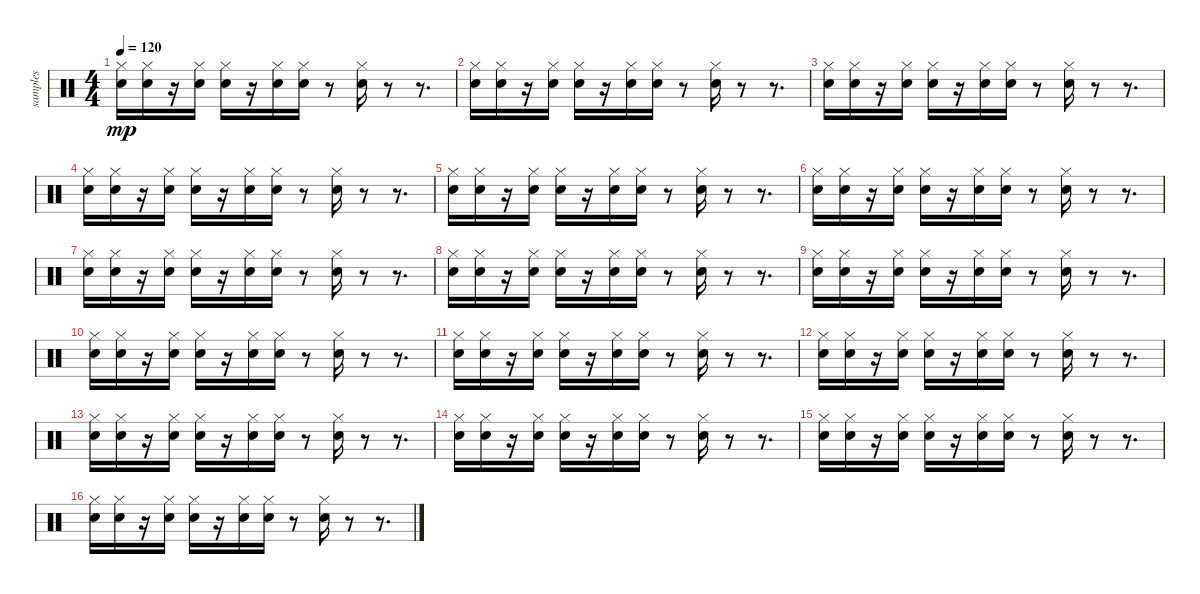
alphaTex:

\track ("samples" "samples") {instrument percussion}
\staff {score}
\articulation defaults
\ts (4 4)
\tempo 120
\clef neutral
\ks c
("Hi-Hat (closed)" "Snare (hit) 2").16{dy mp} ("Hi-Hat (closed)" "Snare (hit) 2").16 r.16 ("Hi-Hat (closed)" "Snare (hit) 2").16 ("Hi-Hat (closed)" "Snare (hit) 2").16 r.16 ("Hi-Hat (closed)" "Snare (hit) 2").16 ("Hi-Hat (closed)" "Snare (hit) 2").16 r.8 ("Hi-Hat (closed)" "Snare (hit) 2").16 r.8 r.8{d} |
("Hi-Hat (closed)" "Snare (hit) 2").16 ("Hi-Hat (closed)" "Snare (hit) 2").16 r.16 ("Hi-Hat (closed)" "Snare (hit) 2").16 ("Hi-Hat (closed)" "Snare (hit) 2").16 r.16 ("Hi-Hat (closed)" "Snare (hit) 2").16 ("Hi-Hat (closed)" "Snare (hit) 2").16 r.8 ("Hi-Hat (closed)" "Snare (hit) 2").16 r.8 r.8{d} |
("Hi-Hat (closed)" "Snare (hit) 2").16 ("Hi-Hat (closed)" "Snare (hit) 2").16 r.16 ("Hi-Hat (closed)" "Snare (hit) 2").16 ("Hi-Hat (closed)" "Snare (hit) 2").16 r.16 ("Hi-Hat (closed)" "Snare (hit) 2").16 ("Hi-Hat (closed)" "Snare (hit) 2").16 r.8 ("Hi-Hat (closed)" "Snare (hit) 2").16 r.8 r.8{d} |
("Hi-Hat (closed)" "Snare (hit) 2").16{volume 10} ("Hi-Hat (closed)" "Snare (hit) 2").16 r.16 ("Hi-Hat (closed)" "Snare (hit) 2").16 ("Hi-Hat (closed)" "Snare (hit) 2").16 r.16 ("Hi-Hat (closed)" "Snare (hit) 2").16 ("Hi-Hat (closed)" "Snare (hit) 2").16 r.8 ("Hi-Hat (closed)" "Snare (hit) 2").16 r.8 r.8{d} |
("Hi-Hat (closed)" "Snare (hit) 2").16 ("Hi-Hat (closed)" "Snare (hit) 2").16 r.16 ("Hi-Hat (closed)" "Snare (hit) 2").16 ("Hi-Hat (closed)" "Snare (hit) 2").16 r.16 ("Hi-Hat (closed)" "Snare (hit) 2").16 ("Hi-Hat (closed)" "Snare (hit) 2").16 r.8 ("Hi-Hat (closed)" "Snare (hit) 2").16 r.8 r.8{d} |
("Hi-Hat (closed)" "Snare (hit) 2").16 ("Hi-Hat (closed)" "Snare (hit) 2").16 r.16 ("Hi-Hat (closed)" "Snare (hit) 2").16 ("Hi-Hat (closed)" "Snare (hit) 2").16 r.16 ("Hi-Hat (closed)" "Snare (hit) 2").16 ("Hi-Hat (closed)" "Snare (hit) 2").16 r.8 ("Hi-Hat (closed)" "Snare (hit) 2").16 r.8 r.8{d} |
("Hi-Hat (closed)" "Snare (hit) 2").16 ("Hi-Hat (closed)" "Snare (hit) 2").16 r.16 ("Hi-Hat (closed)" "Snare (hit) 2").16 ("Hi-Hat (closed)" "Snare (hit) 2").16 r.16 ("Hi-Hat (closed)" "Snare (hit) 2").16 ("Hi-Hat (closed)" "Snare (hit) 2").16 r.8 ("Hi-Hat (closed)" "Snare (hit) 2").16 r.8 r.8{d} |
("Hi-Hat (closed)" "Snare (hit) 2").16 ("Hi-Hat (closed)" "Snare (hit) 2").16 r.16 ("Hi-Hat (closed)" "Snare (hit) 2").16 ("Hi-Hat (closed)" "Snare (hit) 2").16 r.16 ("Hi-Hat (closed)" "Snare (hit) 2").16 ("Hi-Hat (closed)" "Snare (hit) 2").16 r.8 ("Hi-Hat (closed)" "Snare (hit) 2").16 r.8 r.8{d} |
("Hi-Hat (closed)" "Snare (hit) 2").16 ("Hi-Hat (closed)" "Snare (hit) 2").16 r.16 ("Hi-Hat (closed)" "Snare (hit) 2").16 ("Hi-Hat (closed)" "Snare (hit) 2").16 r.16 ("Hi-Hat (closed)" "Snare (hit) 2").16 ("Hi-Hat (closed)" "Snare (hit) 2").16 r.8 ("Hi-Hat (closed)" "Snare (hit) 2").16 r.8 r.8{d} |
("Hi-Hat (closed)" "Snare (hit) 2").16 ("Hi-Hat (closed)" "Snare (hit) 2").16 r.16 ("Hi-Hat (closed)" "Snare (hit) 2").16 ("Hi-Hat (closed)" "Snare (hit) 2").16 r.16 ("Hi-Hat (closed)" "Snare (hit) 2").16 ("Hi-Hat (closed)" "Snare (hit) 2").16 r.8 ("Hi-Hat (closed)" "Snare (hit) 2").16 r.8 r.8{d} |
("Hi-Hat (closed)" "Snare (hit) 2").16 ("Hi-Hat (closed)" "Snare (hit) 2").16 r.16 ("Hi-Hat (closed)" "Snare (hit) 2").16 ("Hi-Hat (closed)" "Snare (hit) 2").16 r.16 ("Hi-Hat (closed)" "Snare (hit) 2").16 ("Hi-Hat (closed)" "Snare (hit) 2").16 r.8 ("Hi-Hat (closed)" "Snare (hit) 2").16 r.8 r.8{d} |
("Hi-Hat (closed)" "Snare (hit) 2").16{volume 10} ("Hi-Hat (closed)" "Snare (hit) 2").16 r.16 ("Hi-Hat (closed)" "Snare (hit) 2").16 ("Hi-Hat (closed)" "Snare (hit) 2").16 r.16 ("Hi-Hat (closed)" "Snare (hit) 2").16 ("Hi-Hat (closed)" "Snare (hit) 2").16 r.8 ("Hi-Hat (closed)" "Snare (hit) 2").16 r.8 r.8{d} |
("Hi-Hat (closed)" "Snare (hit) 2").16 ("Hi-Hat (closed)" "Snare (hit) 2").16 r.16 ("Hi-Hat (closed)" "Snare (hit) 2").16 ("Hi-Hat (closed)" "Snare (hit) 2").16 r.16 ("Hi-Hat (closed)" "Snare (hit) 2").16 ("Hi-Hat (closed)" "Snare (hit) 2").16 r.8 ("Hi-Hat (closed)" "Snare (hit) 2").16 r.8 r.8{d} |
("Hi-Hat (closed)" "Snare (hit) 2").16 ("Hi-Hat (closed)" "Snare (hit) 2").16 r.16 ("Hi-Hat (closed)" "Snare (hit) 2").16 ("Hi-Hat (closed)" "Snare (hit) 2").16 r.16 ("Hi-Hat (closed)" "Snare (hit) 2").16 ("Hi-Hat (closed)" "Snare (hit) 2").16 r.8 ("Hi-Hat (closed)" "Snare (hit) 2").16 r.8 r.8{d} |
("Hi-Hat (closed)" "Snare (hit) 2").16 ("Hi-Hat (closed)" "Snare (hit) 2").16 r.16 ("Hi-Hat (closed)" "Snare (hit) 2").16 ("Hi-Hat (closed)" "Snare (hit) 2").16 r.16 ("Hi-Hat (closed)" "Snare (hit) 2").16 ("Hi-Hat (closed)" "Snare (hit) 2").16 r.8 ("Hi-Hat (closed)" "Snare (hit) 2").16 r.8 r.8{d} |
("Hi-Hat (closed)" "Snare (hit) 2").16 ("Hi-Hat (closed)" "Snare (hit) 2").16 r.16 ("Hi-Hat (closed)" "Snare (hit) 2").16 ("Hi-Hat (closed)" "Snare (hit) 2").16 r.16 ("Hi-Hat (closed)" "Snare (hit) 2").16 ("Hi-Hat (closed)" "Snare (hit) 2").16 r.8 ("Hi-Hat (closed)" "Snare (hit) 2").16 r.8 r.8{d}
